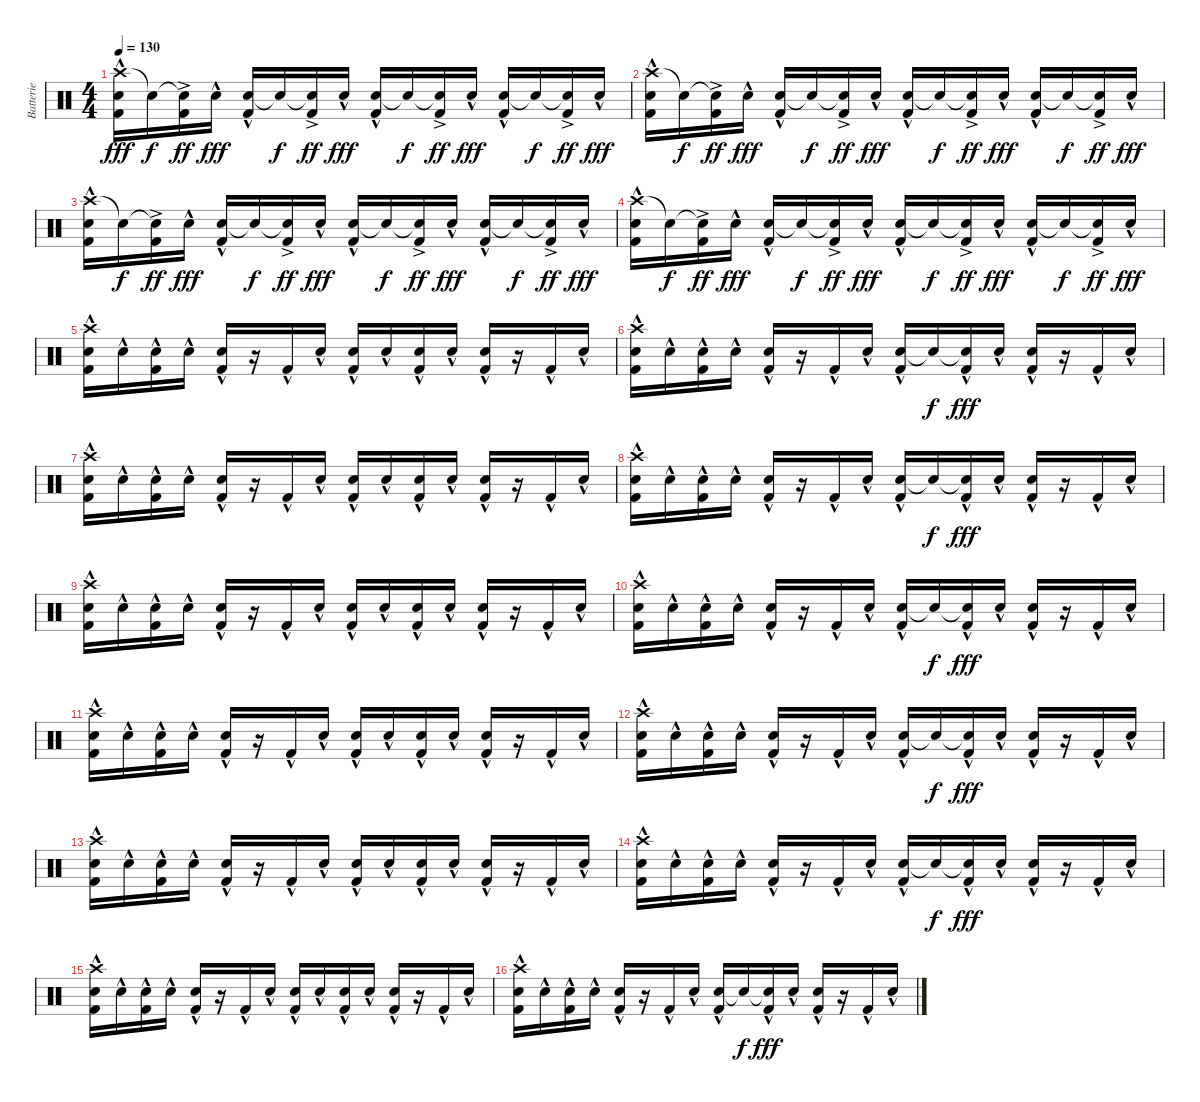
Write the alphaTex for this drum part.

\track ("Batterie" "Batterie") {instrument percussion}
\staff {score}
\articulation defaults
\ts (4 4)
\tempo 130
\clef neutral
\ks c
("Crash high (hit)"{hac} "Electric Snare (hit)"{hac} "Kick (hit) 2"{hac}).16{dy fff} "Snare (hit)"{t}.16{dy f} ("Electric Snare (hit)"{t} "Kick (hit) 2"{ac}).16{dy ff} "Electric Snare (hit)"{hac}.16{dy fff} ("Electric Snare (hit)"{hac} "Kick (hit) 2"{hac}).16 "Electric Snare (hit)"{t}.16{dy f} ("Snare (hit)"{t} "Kick (hit) 2"{ac}).16{dy ff} "Electric Snare (hit)"{hac}.16{dy fff} ("Electric Snare (hit)"{hac} "Kick (hit) 2"{hac}).16 "Snare (hit)"{t}.16{dy f} ("Electric Snare (hit)"{t} "Kick (hit) 2"{ac}).16{dy ff} "Electric Snare (hit)"{hac}.16{dy fff} ("Electric Snare (hit)"{hac} "Kick (hit) 2"{hac}).16 "Electric Snare (hit)"{t}.16{dy f} ("Snare (hit)"{t} "Kick (hit) 2"{ac}).16{dy ff} "Electric Snare (hit)"{hac}.16{dy fff} |
("Crash high (hit)"{hac} "Electric Snare (hit)"{hac} "Kick (hit) 2"{hac}).16 "Snare (hit)"{t}.16{dy f} ("Electric Snare (hit)"{t} "Kick (hit) 2"{ac}).16{dy ff} "Electric Snare (hit)"{hac}.16{dy fff} ("Electric Snare (hit)"{hac} "Kick (hit) 2"{hac}).16 "Electric Snare (hit)"{t}.16{dy f} ("Snare (hit)"{t} "Kick (hit) 2"{ac}).16{dy ff} "Electric Snare (hit)"{hac}.16{dy fff} ("Electric Snare (hit)"{hac} "Kick (hit) 2"{hac}).16 "Snare (hit)"{t}.16{dy f} ("Electric Snare (hit)"{t} "Kick (hit) 2"{ac}).16{dy ff} "Electric Snare (hit)"{hac}.16{dy fff} ("Electric Snare (hit)"{hac} "Kick (hit) 2"{hac}).16 "Electric Snare (hit)"{t}.16{dy f} ("Snare (hit)"{t} "Kick (hit) 2"{ac}).16{dy ff} "Electric Snare (hit)"{hac}.16{dy fff} |
("Crash high (hit)"{hac} "Electric Snare (hit)"{hac} "Kick (hit) 2"{hac}).16 "Snare (hit)"{t}.16{dy f} ("Electric Snare (hit)"{t} "Kick (hit) 2"{ac}).16{dy ff} "Electric Snare (hit)"{hac}.16{dy fff} ("Electric Snare (hit)"{hac} "Kick (hit) 2"{hac}).16 "Electric Snare (hit)"{t}.16{dy f} ("Snare (hit)"{t} "Kick (hit) 2"{ac}).16{dy ff} "Electric Snare (hit)"{hac}.16{dy fff} ("Electric Snare (hit)"{hac} "Kick (hit) 2"{hac}).16 "Snare (hit)"{t}.16{dy f} ("Electric Snare (hit)"{t} "Kick (hit) 2"{ac}).16{dy ff} "Electric Snare (hit)"{hac}.16{dy fff} ("Electric Snare (hit)"{hac} "Kick (hit) 2"{hac}).16 "Electric Snare (hit)"{t}.16{dy f} ("Snare (hit)"{t} "Kick (hit) 2"{ac}).16{dy ff} "Electric Snare (hit)"{hac}.16{dy fff} |
("Crash high (hit)"{hac} "Electric Snare (hit)"{hac} "Kick (hit) 2"{hac}).16 "Snare (hit)"{t}.16{dy f} ("Electric Snare (hit)"{t} "Kick (hit) 2"{ac}).16{dy ff} "Electric Snare (hit)"{hac}.16{dy fff} ("Electric Snare (hit)"{hac} "Kick (hit) 2"{hac}).16 "Electric Snare (hit)"{t}.16{dy f} ("Snare (hit)"{t} "Kick (hit) 2"{ac}).16{dy ff} "Electric Snare (hit)"{hac}.16{dy fff} ("Electric Snare (hit)"{hac} "Kick (hit) 2"{hac}).16 "Snare (hit)"{t}.16{dy f} ("Electric Snare (hit)"{t} "Kick (hit) 2"{ac}).16{dy ff} "Electric Snare (hit)"{hac}.16{dy fff} ("Electric Snare (hit)"{hac} "Kick (hit) 2"{hac}).16 "Electric Snare (hit)"{t}.16{dy f} ("Snare (hit)"{t} "Kick (hit) 2"{ac}).16{dy ff} "Electric Snare (hit)"{hac}.16{dy fff} |
("Crash high (hit)"{hac} "Electric Snare (hit)"{hac} "Kick (hit) 2"{hac}).16 "Electric Snare (hit)"{hac}.16 ("Electric Snare (hit)"{hac} "Kick (hit) 2"{hac}).16 "Electric Snare (hit)"{hac}.16 ("Electric Snare (hit)"{hac} "Kick (hit) 2"{hac}).16 r.16 "Kick (hit) 2"{hac}.16 "Electric Snare (hit)"{hac}.16 ("Electric Snare (hit)"{hac} "Kick (hit) 2"{hac}).16 "Electric Snare (hit)"{hac}.16 ("Electric Snare (hit)"{hac} "Kick (hit) 2"{hac}).16 "Electric Snare (hit)"{hac}.16 ("Electric Snare (hit)"{hac} "Kick (hit) 2"{hac}).16 r.16 "Kick (hit) 2"{hac}.16 "Electric Snare (hit)"{hac}.16 |
("Crash high (hit)"{hac} "Electric Snare (hit)"{hac} "Kick (hit) 2"{hac}).16 "Electric Snare (hit)"{hac}.16 ("Electric Snare (hit)"{hac} "Kick (hit) 2"{hac}).16 "Electric Snare (hit)"{hac}.16 ("Electric Snare (hit)"{hac} "Kick (hit) 2"{hac}).16 r.16 "Kick (hit) 2"{hac}.16 "Electric Snare (hit)"{hac}.16 ("Electric Snare (hit)"{hac} "Kick (hit) 2"{hac}).16 "Electric Snare (hit)"{t}.16{dy f} ("Electric Snare (hit)"{t} "Kick (hit) 2"{hac}).16{dy fff} "Electric Snare (hit)"{hac}.16 ("Electric Snare (hit)"{hac} "Kick (hit) 2"{hac}).16 r.16 "Kick (hit) 2"{hac}.16 "Electric Snare (hit)"{hac}.16 |
("Crash high (hit)"{hac} "Electric Snare (hit)"{hac} "Kick (hit) 2"{hac}).16 "Electric Snare (hit)"{hac}.16 ("Electric Snare (hit)"{hac} "Kick (hit) 2"{hac}).16 "Electric Snare (hit)"{hac}.16 ("Electric Snare (hit)"{hac} "Kick (hit) 2"{hac}).16 r.16 "Kick (hit) 2"{hac}.16 "Electric Snare (hit)"{hac}.16 ("Electric Snare (hit)"{hac} "Kick (hit) 2"{hac}).16 "Electric Snare (hit)"{hac}.16 ("Electric Snare (hit)"{hac} "Kick (hit) 2"{hac}).16 "Electric Snare (hit)"{hac}.16 ("Electric Snare (hit)"{hac} "Kick (hit) 2"{hac}).16 r.16 "Kick (hit) 2"{hac}.16 "Electric Snare (hit)"{hac}.16 |
("Crash high (hit)"{hac} "Electric Snare (hit)"{hac} "Kick (hit) 2"{hac}).16 "Electric Snare (hit)"{hac}.16 ("Electric Snare (hit)"{hac} "Kick (hit) 2"{hac}).16 "Electric Snare (hit)"{hac}.16 ("Electric Snare (hit)"{hac} "Kick (hit) 2"{hac}).16 r.16 "Kick (hit) 2"{hac}.16 "Electric Snare (hit)"{hac}.16 ("Electric Snare (hit)"{hac} "Kick (hit) 2"{hac}).16 "Electric Snare (hit)"{t}.16{dy f} ("Electric Snare (hit)"{t} "Kick (hit) 2"{hac}).16{dy fff} "Electric Snare (hit)"{hac}.16 ("Electric Snare (hit)"{hac} "Kick (hit) 2"{hac}).16 r.16 "Kick (hit) 2"{hac}.16 "Electric Snare (hit)"{hac}.16 |
("Crash high (hit)"{hac} "Electric Snare (hit)"{hac} "Kick (hit) 2"{hac}).16 "Electric Snare (hit)"{hac}.16 ("Electric Snare (hit)"{hac} "Kick (hit) 2"{hac}).16 "Electric Snare (hit)"{hac}.16 ("Electric Snare (hit)"{hac} "Kick (hit) 2"{hac}).16 r.16 "Kick (hit) 2"{hac}.16 "Electric Snare (hit)"{hac}.16 ("Electric Snare (hit)"{hac} "Kick (hit) 2"{hac}).16 "Electric Snare (hit)"{hac}.16 ("Electric Snare (hit)"{hac} "Kick (hit) 2"{hac}).16 "Electric Snare (hit)"{hac}.16 ("Electric Snare (hit)"{hac} "Kick (hit) 2"{hac}).16 r.16 "Kick (hit) 2"{hac}.16 "Electric Snare (hit)"{hac}.16 |
("Crash high (hit)"{hac} "Electric Snare (hit)"{hac} "Kick (hit) 2"{hac}).16 "Electric Snare (hit)"{hac}.16 ("Electric Snare (hit)"{hac} "Kick (hit) 2"{hac}).16 "Electric Snare (hit)"{hac}.16 ("Electric Snare (hit)"{hac} "Kick (hit) 2"{hac}).16 r.16 "Kick (hit) 2"{hac}.16 "Electric Snare (hit)"{hac}.16 ("Electric Snare (hit)"{hac} "Kick (hit) 2"{hac}).16 "Electric Snare (hit)"{t}.16{dy f} ("Electric Snare (hit)"{t} "Kick (hit) 2"{hac}).16{dy fff} "Electric Snare (hit)"{hac}.16 ("Electric Snare (hit)"{hac} "Kick (hit) 2"{hac}).16 r.16 "Kick (hit) 2"{hac}.16 "Electric Snare (hit)"{hac}.16 |
("Crash high (hit)"{hac} "Electric Snare (hit)"{hac} "Kick (hit) 2"{hac}).16 "Electric Snare (hit)"{hac}.16 ("Electric Snare (hit)"{hac} "Kick (hit) 2"{hac}).16 "Electric Snare (hit)"{hac}.16 ("Electric Snare (hit)"{hac} "Kick (hit) 2"{hac}).16 r.16 "Kick (hit) 2"{hac}.16 "Electric Snare (hit)"{hac}.16 ("Electric Snare (hit)"{hac} "Kick (hit) 2"{hac}).16 "Electric Snare (hit)"{hac}.16 ("Electric Snare (hit)"{hac} "Kick (hit) 2"{hac}).16 "Electric Snare (hit)"{hac}.16 ("Electric Snare (hit)"{hac} "Kick (hit) 2"{hac}).16 r.16 "Kick (hit) 2"{hac}.16 "Electric Snare (hit)"{hac}.16 |
("Crash high (hit)"{hac} "Electric Snare (hit)"{hac} "Kick (hit) 2"{hac}).16 "Electric Snare (hit)"{hac}.16 ("Electric Snare (hit)"{hac} "Kick (hit) 2"{hac}).16 "Electric Snare (hit)"{hac}.16 ("Electric Snare (hit)"{hac} "Kick (hit) 2"{hac}).16 r.16 "Kick (hit) 2"{hac}.16 "Electric Snare (hit)"{hac}.16 ("Electric Snare (hit)"{hac} "Kick (hit) 2"{hac}).16 "Electric Snare (hit)"{t}.16{dy f} ("Electric Snare (hit)"{t} "Kick (hit) 2"{hac}).16{dy fff} "Electric Snare (hit)"{hac}.16 ("Electric Snare (hit)"{hac} "Kick (hit) 2"{hac}).16 r.16 "Kick (hit) 2"{hac}.16 "Electric Snare (hit)"{hac}.16 |
("Crash high (hit)"{hac} "Electric Snare (hit)"{hac} "Kick (hit) 2"{hac}).16 "Electric Snare (hit)"{hac}.16 ("Electric Snare (hit)"{hac} "Kick (hit) 2"{hac}).16 "Electric Snare (hit)"{hac}.16 ("Electric Snare (hit)"{hac} "Kick (hit) 2"{hac}).16 r.16 "Kick (hit) 2"{hac}.16 "Electric Snare (hit)"{hac}.16 ("Electric Snare (hit)"{hac} "Kick (hit) 2"{hac}).16 "Electric Snare (hit)"{hac}.16 ("Electric Snare (hit)"{hac} "Kick (hit) 2"{hac}).16 "Electric Snare (hit)"{hac}.16 ("Electric Snare (hit)"{hac} "Kick (hit) 2"{hac}).16 r.16 "Kick (hit) 2"{hac}.16 "Electric Snare (hit)"{hac}.16 |
("Crash high (hit)"{hac} "Electric Snare (hit)"{hac} "Kick (hit) 2"{hac}).16 "Electric Snare (hit)"{hac}.16 ("Electric Snare (hit)"{hac} "Kick (hit) 2"{hac}).16 "Electric Snare (hit)"{hac}.16 ("Electric Snare (hit)"{hac} "Kick (hit) 2"{hac}).16 r.16 "Kick (hit) 2"{hac}.16 "Electric Snare (hit)"{hac}.16 ("Electric Snare (hit)"{hac} "Kick (hit) 2"{hac}).16 "Electric Snare (hit)"{t}.16{dy f} ("Electric Snare (hit)"{t} "Kick (hit) 2"{hac}).16{dy fff} "Electric Snare (hit)"{hac}.16 ("Electric Snare (hit)"{hac} "Kick (hit) 2"{hac}).16 r.16 "Kick (hit) 2"{hac}.16 "Electric Snare (hit)"{hac}.16 |
("Crash high (hit)"{hac} "Electric Snare (hit)"{hac} "Kick (hit) 2"{hac}).16 "Electric Snare (hit)"{hac}.16 ("Electric Snare (hit)"{hac} "Kick (hit) 2"{hac}).16 "Electric Snare (hit)"{hac}.16 ("Electric Snare (hit)"{hac} "Kick (hit) 2"{hac}).16 r.16 "Kick (hit) 2"{hac}.16 "Electric Snare (hit)"{hac}.16 ("Electric Snare (hit)"{hac} "Kick (hit) 2"{hac}).16 "Electric Snare (hit)"{hac}.16 ("Electric Snare (hit)"{hac} "Kick (hit) 2"{hac}).16 "Electric Snare (hit)"{hac}.16 ("Electric Snare (hit)"{hac} "Kick (hit) 2"{hac}).16 r.16 "Kick (hit) 2"{hac}.16 "Electric Snare (hit)"{hac}.16 |
("Crash high (hit)"{hac} "Electric Snare (hit)"{hac} "Kick (hit) 2"{hac}).16 "Electric Snare (hit)"{hac}.16 ("Electric Snare (hit)"{hac} "Kick (hit) 2"{hac}).16 "Electric Snare (hit)"{hac}.16 ("Electric Snare (hit)"{hac} "Kick (hit) 2"{hac}).16 r.16 "Kick (hit) 2"{hac}.16 "Electric Snare (hit)"{hac}.16 ("Electric Snare (hit)"{hac} "Kick (hit) 2"{hac}).16 "Electric Snare (hit)"{t}.16{dy f} ("Electric Snare (hit)"{t} "Kick (hit) 2"{hac}).16{dy fff} "Electric Snare (hit)"{hac}.16 ("Electric Snare (hit)"{hac} "Kick (hit) 2"{hac}).16 r.16 "Kick (hit) 2"{hac}.16 "Electric Snare (hit)"{hac}.16
